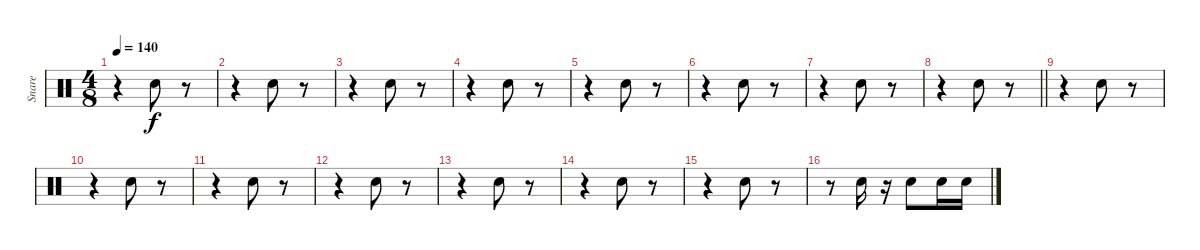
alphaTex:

\track ("Snare" "Snare") {instrument percussion}
\staff {score}
\articulation defaults
\ts (4 8)
\tempo 140
\clef neutral
\ks c
r.4{dy f} "Snare (hit) 2".8 r.8 |
r.4 "Snare (hit) 2".8 r.8 |
r.4 "Snare (hit) 2".8 r.8 |
r.4 "Snare (hit) 2".8 r.8 |
r.4 "Snare (hit) 2".8 r.8 |
r.4 "Snare (hit) 2".8 r.8 |
r.4 "Snare (hit) 2".8 r.8 |
\barLineRight lightlight
r.4 "Snare (hit) 2".8 r.8 |
r.4 "Snare (hit) 2".8 r.8 |
r.4 "Snare (hit) 2".8 r.8 |
r.4 "Snare (hit) 2".8 r.8 |
r.4 "Snare (hit) 2".8 r.8 |
r.4 "Snare (hit) 2".8 r.8 |
r.4 "Snare (hit) 2".8 r.8 |
r.4 "Snare (hit) 2".8 r.8 |
r.8 "Snare (hit) 2".16 r.16 "Snare (hit) 2".8 "Snare (hit) 2".16 "Snare (hit) 2".16
